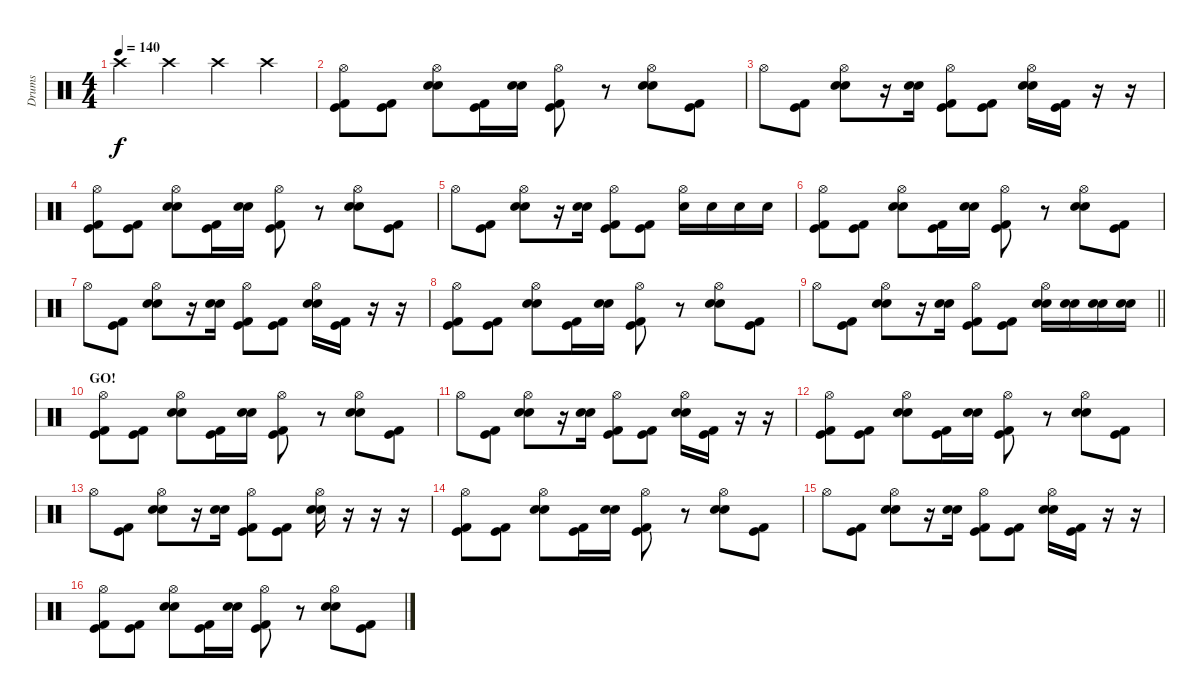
\track ("Drums" "Drums") {instrument percussion}
\staff {score}
\articulation defaults
\ts (4 4)
\tempo 140
\clef neutral
\ks c "Crash high (hit)".4{dy f} "Crash high (hit)".4 "Crash high (hit)".4 "Crash high (hit)".4
|
("Hi-Hat (open)" "Kick (hit) 2" "Kick (hit)").8 ("Kick (hit) 2" "Kick (hit)").8 ("Hi-Hat (open)" "Electric Snare (hit)" "Electric Snare (hit)").8 ("Kick (hit) 2" "Kick (hit)").16 ("Electric Snare (hit)" "Electric Snare (hit)").16 ("Hi-Hat (open)" "Kick (hit) 2" "Kick (hit)").8 r.8 ("Hi-Hat (open)" "Electric Snare (hit)" "Electric Snare (hit)").8 ("Kick (hit)" "Kick (hit) 2").8 |
"Hi-Hat (open)".8 ("Kick (hit) 2" "Kick (hit)").8 ("Hi-Hat (open)" "Electric Snare (hit)" "Electric Snare (hit)").8 r.16 ("Electric Snare (hit)" "Electric Snare (hit)").16 ("Hi-Hat (open)" "Kick (hit) 2" "Kick (hit)").8 ("Kick (hit) 2" "Kick (hit)").8 ("Hi-Hat (open)" "Electric Snare (hit)" "Electric Snare (hit)").16 ("Kick (hit) 2" "Kick (hit)").16 r.16 r.16 |
("Hi-Hat (open)" "Kick (hit) 2" "Kick (hit)").8 ("Kick (hit) 2" "Kick (hit)").8 ("Hi-Hat (open)" "Electric Snare (hit)" "Electric Snare (hit)").8 ("Kick (hit) 2" "Kick (hit)").16 ("Electric Snare (hit)" "Electric Snare (hit)").16 ("Hi-Hat (open)" "Kick (hit) 2" "Kick (hit)").8 r.8 ("Hi-Hat (open)" "Electric Snare (hit)" "Electric Snare (hit)").8 ("Kick (hit)" "Kick (hit) 2").8 |
"Hi-Hat (open)".8 ("Kick (hit) 2" "Kick (hit)").8 ("Hi-Hat (open)" "Electric Snare (hit)" "Electric Snare (hit)").8 r.16 ("Electric Snare (hit)" "Electric Snare (hit)").16 ("Hi-Hat (open)" "Kick (hit) 2" "Kick (hit)").8 ("Kick (hit) 2" "Kick (hit)").8 ("Hi-Hat (open)" "Electric Snare (hit)").16 "Electric Snare (hit)".16 "Electric Snare (hit)".16 "Electric Snare (hit)".16 |
("Hi-Hat (open)" "Kick (hit) 2" "Kick (hit)").8 ("Kick (hit) 2" "Kick (hit)").8 ("Hi-Hat (open)" "Electric Snare (hit)" "Electric Snare (hit)").8 ("Kick (hit) 2" "Kick (hit)").16 ("Electric Snare (hit)" "Electric Snare (hit)").16 ("Hi-Hat (open)" "Kick (hit) 2" "Kick (hit)").8 r.8 ("Hi-Hat (open)" "Electric Snare (hit)" "Electric Snare (hit)").8 ("Kick (hit)" "Kick (hit) 2").8 |
"Hi-Hat (open)".8 ("Kick (hit) 2" "Kick (hit)").8 ("Hi-Hat (open)" "Electric Snare (hit)" "Electric Snare (hit)").8 r.16 ("Electric Snare (hit)" "Electric Snare (hit)").16 ("Hi-Hat (open)" "Kick (hit) 2" "Kick (hit)").8 ("Kick (hit) 2" "Kick (hit)").8 ("Hi-Hat (open)" "Electric Snare (hit)" "Electric Snare (hit)").16 ("Kick (hit) 2" "Kick (hit)").16 r.16 r.16 |
("Hi-Hat (open)" "Kick (hit) 2" "Kick (hit)").8 ("Kick (hit) 2" "Kick (hit)").8 ("Hi-Hat (open)" "Electric Snare (hit)" "Electric Snare (hit)").8 ("Kick (hit) 2" "Kick (hit)").16 ("Electric Snare (hit)" "Electric Snare (hit)").16 ("Hi-Hat (open)" "Kick (hit) 2" "Kick (hit)").8 r.8 ("Hi-Hat (open)" "Electric Snare (hit)" "Electric Snare (hit)").8 ("Kick (hit)" "Kick (hit) 2").8 |
\barLineRight lightlight "Hi-Hat (open)".8
("Kick (hit) 2" "Kick (hit)").8 ("Hi-Hat (open)" "Electric Snare (hit)" "Electric Snare (hit)").8 r.16 ("Electric Snare (hit)" "Electric Snare (hit)").16 ("Hi-Hat (open)" "Kick (hit) 2" "Kick (hit)").8 ("Kick (hit) 2" "Kick (hit)").8 ("Hi-Hat (open)" "Electric Snare (hit)" "Electric Snare (hit)").16 ("Electric Snare (hit)" "Electric Snare (hit)").16 ("Electric Snare (hit)" "Electric Snare (hit)").16 ("Electric Snare (hit)" "Electric Snare (hit)").16 |
\section ("" "GO!")
("Hi-Hat (open)" "Kick (hit) 2" "Kick (hit)").8 ("Kick (hit) 2" "Kick (hit)").8 ("Hi-Hat (open)" "Electric Snare (hit)" "Electric Snare (hit)").8 ("Kick (hit) 2" "Kick (hit)").16 ("Electric Snare (hit)" "Electric Snare (hit)").16 ("Hi-Hat (open)" "Kick (hit) 2" "Kick (hit)").8 r.8 ("Hi-Hat (open)" "Electric Snare (hit)" "Electric Snare (hit)").8 ("Kick (hit)" "Kick (hit) 2").8 |
"Hi-Hat (open)".8 ("Kick (hit) 2" "Kick (hit)").8 ("Hi-Hat (open)" "Electric Snare (hit)" "Electric Snare (hit)").8 r.16 ("Electric Snare (hit)" "Electric Snare (hit)").16 ("Hi-Hat (open)" "Kick (hit) 2" "Kick (hit)").8 ("Kick (hit) 2" "Kick (hit)").8 ("Hi-Hat (open)" "Electric Snare (hit)" "Electric Snare (hit)").16 ("Kick (hit) 2" "Kick (hit)").16 r.16 r.16 |
("Hi-Hat (open)" "Kick (hit) 2" "Kick (hit)").8 ("Kick (hit) 2" "Kick (hit)").8 ("Hi-Hat (open)" "Electric Snare (hit)" "Electric Snare (hit)").8 ("Kick (hit) 2" "Kick (hit)").16 ("Electric Snare (hit)" "Electric Snare (hit)").16 ("Hi-Hat (open)" "Kick (hit) 2" "Kick (hit)").8 r.8 ("Hi-Hat (open)" "Electric Snare (hit)" "Electric Snare (hit)").8 ("Kick (hit)" "Kick (hit) 2").8 |
"Hi-Hat (open)".8 ("Kick (hit) 2" "Kick (hit)").8 ("Hi-Hat (open)" "Electric Snare (hit)" "Electric Snare (hit)").8 r.16 ("Electric Snare (hit)" "Electric Snare (hit)").16 ("Hi-Hat (open)" "Kick (hit) 2" "Kick (hit)").8 ("Kick (hit) 2" "Kick (hit)").8 ("Hi-Hat (open)" "Electric Snare (hit)" "Electric Snare (hit)").16 r.16 r.16 r.16 |
("Hi-Hat (open)" "Kick (hit) 2" "Kick (hit)").8 ("Kick (hit) 2" "Kick (hit)").8 ("Hi-Hat (open)" "Electric Snare (hit)" "Electric Snare (hit)").8 ("Kick (hit) 2" "Kick (hit)").16 ("Electric Snare (hit)" "Electric Snare (hit)").16 ("Hi-Hat (open)" "Kick (hit) 2" "Kick (hit)").8 r.8 ("Hi-Hat (open)" "Electric Snare (hit)" "Electric Snare (hit)").8 ("Kick (hit)" "Kick (hit) 2").8 |
"Hi-Hat (open)".8 ("Kick (hit) 2" "Kick (hit)").8 ("Hi-Hat (open)" "Electric Snare (hit)" "Electric Snare (hit)").8 r.16 ("Electric Snare (hit)" "Electric Snare (hit)").16 ("Hi-Hat (open)" "Kick (hit) 2" "Kick (hit)").8 ("Kick (hit) 2" "Kick (hit)").8 ("Hi-Hat (open)" "Electric Snare (hit)" "Electric Snare (hit)").16 ("Kick (hit) 2" "Kick (hit)").16 r.16 r.16 |
("Hi-Hat (open)" "Kick (hit) 2" "Kick (hit)").8 ("Kick (hit) 2" "Kick (hit)").8 ("Hi-Hat (open)" "Electric Snare (hit)" "Electric Snare (hit)").8 ("Kick (hit) 2" "Kick (hit)").16 ("Electric Snare (hit)" "Electric Snare (hit)").16 ("Hi-Hat (open)" "Kick (hit) 2" "Kick (hit)").8 r.8 ("Hi-Hat (open)" "Electric Snare (hit)" "Electric Snare (hit)").8 ("Kick (hit)" "Kick (hit) 2").8
